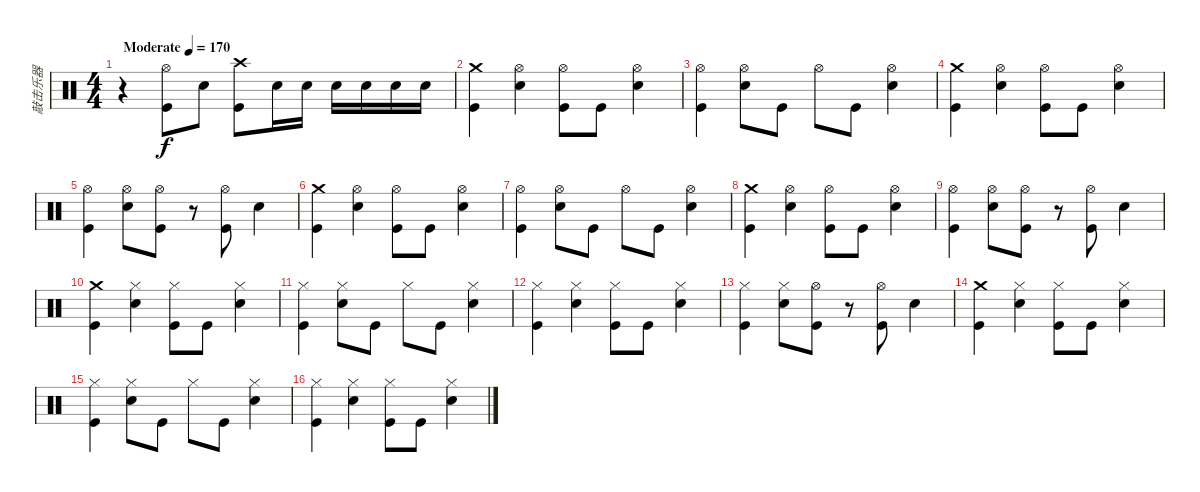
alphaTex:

\track ("敲击乐器" "敲击乐器") {instrument percussion}
\staff {score}
\articulation defaults
\ts (4 4)
\tempo (170 "Moderate")
\clef neutral
\ks c
r.4{dy f} ("Hi-Hat (open)" "Kick (hit)").8 "Snare (hit) 2".8 ("Crash high (hit)" "Kick (hit)").8 "Snare (hit) 2".16 "Snare (hit) 2".16 "Snare (hit) 2".16 "Snare (hit) 2".16 "Snare (hit) 2".16 "Snare (hit) 2".16 |
("Crash medium (hit)" "Kick (hit)").4 ("Hi-Hat (open)" "Snare (hit) 2").4 ("Hi-Hat (open)" "Kick (hit)").8 "Kick (hit)".8 ("Hi-Hat (open)" "Snare (hit) 2").4 |
("Hi-Hat (open)" "Kick (hit)").4 ("Hi-Hat (open)" "Snare (hit) 2").8 "Kick (hit)".8 "Hi-Hat (open)".8 "Kick (hit)".8 ("Hi-Hat (open)" "Snare (hit) 2").4 |
("Crash medium (hit)" "Kick (hit)").4 ("Hi-Hat (open)" "Snare (hit) 2").4 ("Hi-Hat (open)" "Kick (hit)").8 "Kick (hit)".8 ("Hi-Hat (open)" "Snare (hit) 2").4 |
("Hi-Hat (open)" "Kick (hit)").4 ("Hi-Hat (open)" "Snare (hit) 2").8 ("Hi-Hat (open)" "Kick (hit)").8 r.8 ("Hi-Hat (open)" "Kick (hit)").8 "Snare (hit) 2".4 |
("Crash medium (hit)" "Kick (hit)").4 ("Hi-Hat (open)" "Snare (hit) 2").4 ("Hi-Hat (open)" "Kick (hit)").8 "Kick (hit)".8 ("Hi-Hat (open)" "Snare (hit) 2").4 |
("Hi-Hat (open)" "Kick (hit)").4 ("Hi-Hat (open)" "Snare (hit) 2").8 "Kick (hit)".8 "Hi-Hat (open)".8 "Kick (hit)".8 ("Hi-Hat (open)" "Snare (hit) 2").4 |
("Crash medium (hit)" "Kick (hit)").4 ("Hi-Hat (open)" "Snare (hit) 2").4 ("Hi-Hat (open)" "Kick (hit)").8 "Kick (hit)".8 ("Hi-Hat (open)" "Snare (hit) 2").4 |
("Hi-Hat (open)" "Kick (hit)").4 ("Hi-Hat (open)" "Snare (hit) 2").8 ("Hi-Hat (open)" "Kick (hit)").8 r.8 ("Hi-Hat (open)" "Kick (hit)").8 "Snare (hit) 2".4 |
("Crash medium (hit)" "Kick (hit)").4 ("Hi-Hat (closed)" "Snare (hit) 2").4 ("Hi-Hat (closed)" "Kick (hit)").8 "Kick (hit)".8 ("Hi-Hat (closed)" "Snare (hit) 2").4 |
("Hi-Hat (closed)" "Kick (hit)").4 ("Hi-Hat (closed)" "Snare (hit) 2").8 "Kick (hit)".8 "Hi-Hat (closed)".8 "Kick (hit)".8 ("Hi-Hat (closed)" "Snare (hit) 2").4 |
("Hi-Hat (closed)" "Kick (hit)").4 ("Hi-Hat (closed)" "Snare (hit) 2").4 ("Hi-Hat (closed)" "Kick (hit)").8 "Kick (hit)".8 ("Hi-Hat (closed)" "Snare (hit) 2").4 |
("Hi-Hat (closed)" "Kick (hit)").4 ("Hi-Hat (closed)" "Snare (hit) 2").8 ("Hi-Hat (open)" "Kick (hit)").8 r.8 ("Hi-Hat (open)" "Kick (hit)").8 "Snare (hit) 2".4 |
("Crash medium (hit)" "Kick (hit)").4 ("Hi-Hat (closed)" "Snare (hit) 2").4 ("Hi-Hat (closed)" "Kick (hit)").8 "Kick (hit)".8 ("Hi-Hat (closed)" "Snare (hit) 2").4 |
("Hi-Hat (closed)" "Kick (hit)").4 ("Hi-Hat (closed)" "Snare (hit) 2").8 "Kick (hit)".8 "Hi-Hat (closed)".8 "Kick (hit)".8 ("Hi-Hat (closed)" "Snare (hit) 2").4 |
("Hi-Hat (closed)" "Kick (hit)").4 ("Hi-Hat (closed)" "Snare (hit) 2").4 ("Hi-Hat (closed)" "Kick (hit)").8 "Kick (hit)".8 ("Hi-Hat (closed)" "Snare (hit) 2").4
